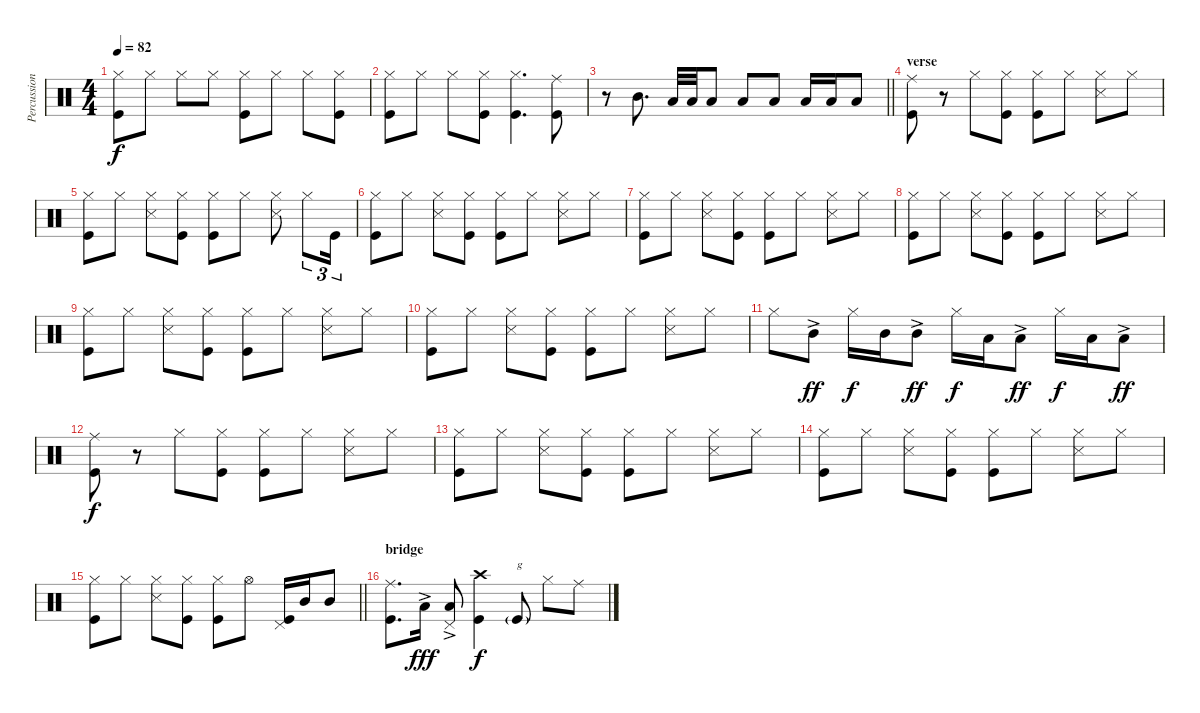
\track ("Percussion" "Percussion") {instrument percussion}
\staff {score}
\articulation defaults
\ts (4 4)
\tempo 82
\clef neutral
\ks c
("Hi-Hat (closed)" "Kick (hit)").8{dy f} "Hi-Hat (closed)".8 "Hi-Hat (closed)".8 "Hi-Hat (closed)".8 ("Hi-Hat (closed)" "Kick (hit)").8 "Hi-Hat (closed)".8 "Hi-Hat (closed)".8 ("Hi-Hat (closed)" "Kick (hit)").8 |
("Hi-Hat (closed)" "Kick (hit)").8 "Hi-Hat (closed)".8 "Hi-Hat (closed)".8 ("Hi-Hat (closed)" "Kick (hit)").8 ("Hi-Hat (closed)" "Kick (hit)").4{d} ("Ride (middle)" "Kick (hit)").8 |
\barLineRight lightlight
r.8 "Mid Tom (hit)".8{d} "Low Tom (hit)".32 "Low Tom (hit)".32 "Low Tom (hit)".8 "Low Tom (hit)".8 "Low Tom (hit)".8 "Low Floor Tom (hit)".16 "Low Floor Tom (hit)".16 "Low Floor Tom (hit)".8 |
\section ("" "verse")
("Ride (middle)" "Kick (hit)").8 r.8 "Hi-Hat (closed)".8 ("Hi-Hat (closed)" "Kick (hit)").8 ("Hi-Hat (closed)" "Kick (hit)").8 "Hi-Hat (closed)".8 ("Hi-Hat (closed)" "Snare (side stick) 3").8 "Hi-Hat (closed)".8 |
("Hi-Hat (closed)" "Kick (hit)").8 "Hi-Hat (closed)".8 ("Hi-Hat (closed)" "Snare (side stick) 3").8 ("Hi-Hat (closed)" "Kick (hit)").8 ("Hi-Hat (closed)" "Kick (hit)").8 "Hi-Hat (closed)".8 ("Hi-Hat (closed)" "Snare (side stick) 3").8 "Hi-Hat (closed)".8{tu (3 2)} "Kick (hit)".16{tu (3 2)} |
("Hi-Hat (closed)" "Kick (hit)").8 "Hi-Hat (closed)".8 ("Hi-Hat (closed)" "Snare (side stick) 3").8 ("Hi-Hat (closed)" "Kick (hit)").8 ("Hi-Hat (closed)" "Kick (hit)").8 "Hi-Hat (closed)".8 ("Hi-Hat (closed)" "Snare (side stick) 3").8 "Hi-Hat (closed)".8 |
("Hi-Hat (closed)" "Kick (hit)").8 "Hi-Hat (closed)".8 ("Hi-Hat (closed)" "Snare (side stick) 3").8 ("Hi-Hat (closed)" "Kick (hit)").8 ("Hi-Hat (closed)" "Kick (hit)").8 "Hi-Hat (closed)".8 ("Hi-Hat (closed)" "Snare (side stick) 3").8 "Hi-Hat (closed)".8 |
("Hi-Hat (closed)" "Kick (hit)").8 "Hi-Hat (closed)".8 ("Hi-Hat (closed)" "Snare (side stick) 3").8 ("Hi-Hat (closed)" "Kick (hit)").8 ("Hi-Hat (closed)" "Kick (hit)").8 "Hi-Hat (closed)".8 ("Hi-Hat (closed)" "Snare (side stick) 3").8 "Hi-Hat (closed)".8 |
("Hi-Hat (closed)" "Kick (hit)").8 "Hi-Hat (closed)".8 ("Hi-Hat (closed)" "Snare (side stick) 3").8 ("Hi-Hat (closed)" "Kick (hit)").8 ("Hi-Hat (closed)" "Kick (hit)").8 "Hi-Hat (closed)".8 ("Hi-Hat (closed)" "Snare (side stick) 3").8 "Hi-Hat (closed)".8 |
("Hi-Hat (closed)" "Kick (hit)").8 "Hi-Hat (closed)".8 ("Hi-Hat (closed)" "Snare (side stick) 3").8 ("Hi-Hat (closed)" "Kick (hit)").8 ("Hi-Hat (closed)" "Kick (hit)").8 "Hi-Hat (closed)".8 ("Hi-Hat (closed)" "Snare (side stick) 3").8 "Hi-Hat (closed)".8 |
"Hi-Hat (closed)".8 "Mid Tom (hit)"{ac}.8{dy ff} "Hi-Hat (closed)".16{dy f} "Mid Tom (hit)".16 "Mid Tom (hit)"{ac}.8{dy ff} "Hi-Hat (closed)".16{dy f} "Low Tom (hit)".16 "Low Tom (hit)"{ac}.8{dy ff} "Hi-Hat (closed)".16{dy f} "Low Floor Tom (hit)".16 "Low Floor Tom (hit)"{ac}.8{dy ff} |
("Ride (middle)" "Kick (hit)").8{dy f} r.8 "Hi-Hat (closed)".8 ("Hi-Hat (closed)" "Kick (hit)").8 ("Hi-Hat (closed)" "Kick (hit)").8 "Hi-Hat (closed)".8 ("Hi-Hat (closed)" "Snare (side stick) 3").8 "Hi-Hat (closed)".8 |
("Hi-Hat (closed)" "Kick (hit)").8 "Hi-Hat (closed)".8 ("Hi-Hat (closed)" "Snare (side stick) 3").8 ("Hi-Hat (closed)" "Kick (hit)").8 ("Hi-Hat (closed)" "Kick (hit)").8 "Hi-Hat (closed)".8 ("Hi-Hat (closed)" "Snare (side stick) 3").8 "Hi-Hat (closed)".8 |
("Hi-Hat (closed)" "Kick (hit)").8 "Hi-Hat (closed)".8 ("Hi-Hat (closed)" "Snare (side stick) 3").8 ("Hi-Hat (closed)" "Kick (hit)").8 ("Hi-Hat (closed)" "Kick (hit)").8 "Hi-Hat (closed)".8 ("Hi-Hat (closed)" "Snare (side stick) 3").8 "Hi-Hat (closed)".8 |
\barLineRight lightlight
("Hi-Hat (closed)" "Kick (hit)").8 "Hi-Hat (closed)".8 ("Hi-Hat (closed)" "Snare (side stick) 3").8 ("Hi-Hat (closed)" "Kick (hit)").8 ("Hi-Hat (closed)" "Kick (hit)").8 "Hi-Hat (open)".8 ("Pedal Hi-Hat (hit)" "Kick (hit)").16 "Mid Tom (hit)".16 "Mid Tom (hit)".8 |
\section ("" "bridge")
("Ride (middle)" "Kick (hit)").8{d} "Low Tom (hit)"{ac}.16{dy fff} ("Low Tom (hit)"{ac} "Pedal Hi-Hat (hit)").8 ("Crash high (hit)" "Kick (hit)").4{dy f} "Kick (hit)"{g}.8{txt "g"} "Hi-Hat (closed)".8 "Ride (middle)".8
